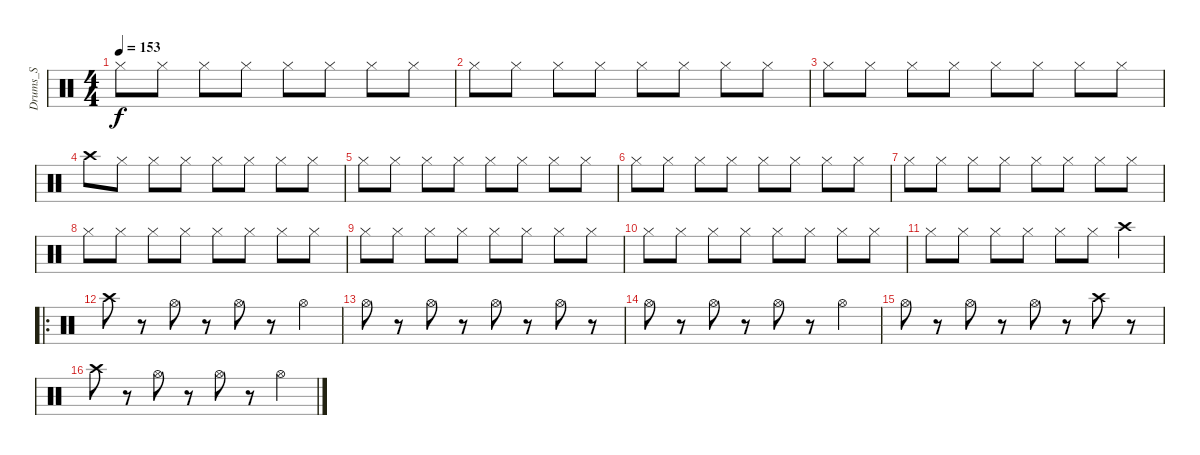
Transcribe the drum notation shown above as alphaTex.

\track ("Drums_S" "Drums_S") {instrument percussion}
\staff {score}
\articulation defaults
\ts (4 4)
\tempo 153
\clef neutral
\ks c "Hi-Hat (closed)".8{dy f} "Hi-Hat (closed)".8 "Hi-Hat (closed)".8 "Hi-Hat (closed)".8 "Hi-Hat (closed)".8 "Hi-Hat (closed)".8 "Hi-Hat (closed)".8 "Hi-Hat (closed)".8
|
"Hi-Hat (closed)".8 "Hi-Hat (closed)".8 "Hi-Hat (closed)".8 "Hi-Hat (closed)".8 "Hi-Hat (closed)".8 "Hi-Hat (closed)".8 "Hi-Hat (closed)".8 "Hi-Hat (closed)".8 |
"Hi-Hat (closed)".8 "Hi-Hat (closed)".8 "Hi-Hat (closed)".8 "Hi-Hat (closed)".8 "Hi-Hat (closed)".8 "Hi-Hat (closed)".8 "Hi-Hat (closed)".8 "Hi-Hat (closed)".8 |
"Crash high (hit)".8 "Hi-Hat (closed)".8 "Hi-Hat (closed)".8 "Hi-Hat (closed)".8 "Hi-Hat (closed)".8 "Hi-Hat (closed)".8 "Hi-Hat (closed)".8 "Hi-Hat (closed)".8 |
"Hi-Hat (closed)".8 "Hi-Hat (closed)".8 "Hi-Hat (closed)".8 "Hi-Hat (closed)".8 "Hi-Hat (closed)".8 "Hi-Hat (closed)".8 "Hi-Hat (closed)".8 "Hi-Hat (closed)".8 |
"Hi-Hat (closed)".8 "Hi-Hat (closed)".8 "Hi-Hat (closed)".8 "Hi-Hat (closed)".8 "Hi-Hat (closed)".8 "Hi-Hat (closed)".8 "Hi-Hat (closed)".8 "Hi-Hat (closed)".8 |
"Hi-Hat (closed)".8 "Hi-Hat (closed)".8 "Hi-Hat (closed)".8 "Hi-Hat (closed)".8 "Hi-Hat (closed)".8 "Hi-Hat (closed)".8 "Hi-Hat (closed)".8 "Hi-Hat (closed)".8 |
"Hi-Hat (closed)".8 "Hi-Hat (closed)".8 "Hi-Hat (closed)".8 "Hi-Hat (closed)".8 "Hi-Hat (closed)".8 "Hi-Hat (closed)".8 "Hi-Hat (closed)".8 "Hi-Hat (closed)".8 |
"Hi-Hat (closed)".8 "Hi-Hat (closed)".8 "Hi-Hat (closed)".8 "Hi-Hat (closed)".8 "Hi-Hat (closed)".8 "Hi-Hat (closed)".8 "Hi-Hat (closed)".8 "Hi-Hat (closed)".8 |
"Hi-Hat (closed)".8 "Hi-Hat (closed)".8 "Hi-Hat (closed)".8 "Hi-Hat (closed)".8 "Hi-Hat (closed)".8 "Hi-Hat (closed)".8 "Hi-Hat (closed)".8 "Hi-Hat (closed)".8 |
"Hi-Hat (closed)".8 "Hi-Hat (closed)".8 "Hi-Hat (closed)".8 "Hi-Hat (closed)".8 "Hi-Hat (closed)".8 "Hi-Hat (closed)".8 "Crash high (hit)".4 |
\ro "Crash high (hit)".8
r.8 "Hi-Hat (open)".8 r.8 "Hi-Hat (open)".8 r.8 "Hi-Hat (open)".4 |
"Hi-Hat (open)".8 r.8 "Hi-Hat (open)".8 r.8 "Hi-Hat (open)".8 r.8 "Hi-Hat (open)".8 r.8 |
"Hi-Hat (open)".8 r.8 "Hi-Hat (open)".8 r.8 "Hi-Hat (open)".8 r.8 "Hi-Hat (open)".4 |
"Hi-Hat (open)".8 r.8 "Hi-Hat (open)".8 r.8 "Hi-Hat (open)".8 r.8 "Crash high (hit)".8 r.8 |
"Crash high (hit)".8 r.8 "Hi-Hat (open)".8 r.8 "Hi-Hat (open)".8 r.8 "Hi-Hat (open)".4
